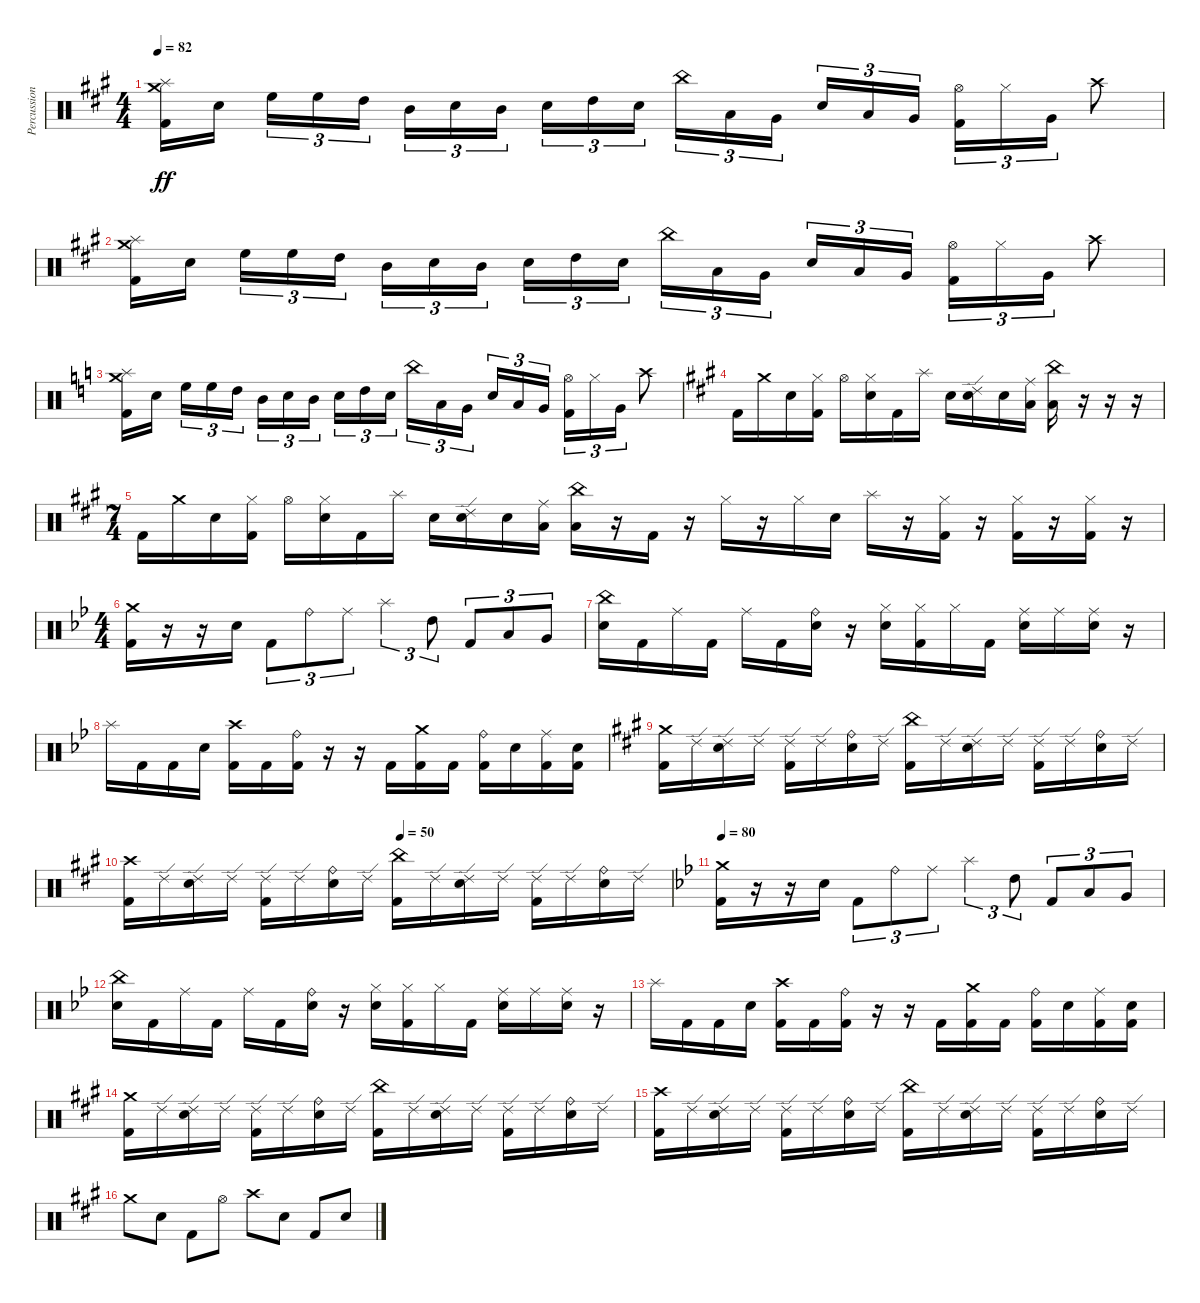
\track ("Percussion" "Percussion") {instrument percussion}
\staff {score}
\articulation defaults
\ts (4 4)
\tempo 82
\clef neutral
\ks a
("Crash medium (hit)" "Splash (hit)" "Kick (hit) 2").16{dy ff} "Electric Snare (hit)".16{beam splitsecondary} "High Floor Tom (hit)".16{tu (3 2)} "High Floor Tom (hit)".16{tu (3 2)} "High Tom (hit)".16{tu (3 2)} "Mid Tom (hit)".16{tu (3 2)} "Electric Snare (hit)".16{tu (3 2)} "Mid Tom (hit)".16{tu (3 2) beam splitsecondary} "Electric Snare (hit)".16{tu (3 2)} "High Tom (hit)".16{tu (3 2)} "Electric Snare (hit)".16{tu (3 2)} "China (hit)".16{tu (3 2)} "Low Tom (hit)".16{tu (3 2)} "Very Low Tom (hit)".16{tu (3 2) beam splitsecondary} "Electric Snare (hit)".16{tu (3 2)} "Low Floor Tom (hit)".16{tu (3 2)} "Very Low Tom (hit)".16{tu (3 2)} ("Hi-Hat (open)" "Kick (hit) 2").16{tu (3 2)} "Hi-Hat (closed)".16{tu (3 2)} "Very Low Tom (hit)".16{tu (3 2)} "Crash high (hit)".8 |
("Crash medium (hit)" "Splash (hit)" "Kick (hit) 2").16 "Electric Snare (hit)".16{beam splitsecondary} "High Floor Tom (hit)".16{tu (3 2)} "High Floor Tom (hit)".16{tu (3 2)} "High Tom (hit)".16{tu (3 2)} "Mid Tom (hit)".16{tu (3 2)} "Electric Snare (hit)".16{tu (3 2)} "Mid Tom (hit)".16{tu (3 2) beam splitsecondary} "Electric Snare (hit)".16{tu (3 2)} "High Tom (hit)".16{tu (3 2)} "Electric Snare (hit)".16{tu (3 2)} "China (hit)".16{tu (3 2)} "Low Tom (hit)".16{tu (3 2)} "Very Low Tom (hit)".16{tu (3 2) beam splitsecondary} "Electric Snare (hit)".16{tu (3 2)} "Low Floor Tom (hit)".16{tu (3 2)} "Very Low Tom (hit)".16{tu (3 2)} ("Hi-Hat (open)" "Kick (hit) 2").16{tu (3 2)} "Hi-Hat (closed)".16{tu (3 2)} "Very Low Tom (hit)".16{tu (3 2)} "Crash high (hit)".8 |
\ks c
("Crash medium (hit)" "Splash (hit)" "Kick (hit) 2").16 "Electric Snare (hit)".16{beam splitsecondary} "High Floor Tom (hit)".16{tu (3 2)} "High Floor Tom (hit)".16{tu (3 2)} "High Tom (hit)".16{tu (3 2)} "Mid Tom (hit)".16{tu (3 2)} "Electric Snare (hit)".16{tu (3 2)} "Mid Tom (hit)".16{tu (3 2) beam splitsecondary} "Electric Snare (hit)".16{tu (3 2)} "High Tom (hit)".16{tu (3 2)} "Electric Snare (hit)".16{tu (3 2)} "China (hit)".16{tu (3 2)} "Low Tom (hit)".16{tu (3 2)} "Very Low Tom (hit)".16{tu (3 2) beam splitsecondary} "Electric Snare (hit)".16{tu (3 2)} "Low Floor Tom (hit)".16{tu (3 2)} "Very Low Tom (hit)".16{tu (3 2)} ("Hi-Hat (open)" "Kick (hit) 2").16{tu (3 2)} "Hi-Hat (closed)".16{tu (3 2)} "Very Low Tom (hit)".16{tu (3 2)} "Crash high (hit)".8 |
\ks a "Kick (hit) 2".16 "Crash medium (hit)".16 "Electric Snare (hit)".16
("Hi-Hat (closed)" "Kick (hit) 2").16 "Hi-Hat (open)".16 ("Hi-Hat (closed)" "Electric Snare (hit)").16 "Kick (hit) 2".16 "Splash (hit)".16 "Electric Snare (hit)".16 ("Ride (edge) 2" "Electric Snare (hit)").16 "Electric Snare (hit)".16 ("Ride (middle)" "Low Floor Tom (hit)").16 ("China (hit)" "Low Floor Tom (hit)").16 r.16 r.16 r.16 |
\ts (7 4)
"Kick (hit) 2".16 "Crash medium (hit)".16 "Electric Snare (hit)".16 ("Hi-Hat (closed)" "Kick (hit) 2").16 "Hi-Hat (open)".16 ("Hi-Hat (closed)" "Electric Snare (hit)").16 "Kick (hit) 2".16 "Splash (hit)".16 "Electric Snare (hit)".16 ("Ride (edge) 2" "Electric Snare (hit)").16 "Electric Snare (hit)".16 ("Ride (middle)" "Low Floor Tom (hit)").16 ("China (hit)" "Low Floor Tom (hit)").16 r.16 "Kick (hit) 2".16 r.16 "Hi-Hat (closed)".16 r.16 "Hi-Hat (closed)".16 "Electric Snare (hit)".16 "Splash (hit)".16 r.16 ("Hi-Hat (closed)" "Kick (hit) 2").16 r.16 ("Hi-Hat (closed)" "Kick (hit) 2").16 r.16 ("Hi-Hat (closed)" "Kick (hit) 2").16 r.16 |
\ts (4 4)
\ks bb
("Crash medium (hit)" "Kick (hit) 2").16 r.16 r.16 "Electric Snare (hit)".16 "Kick (hit) 2".8{tu (3 2)} "Ride (bell)".8{tu (3 2)} "Ride (middle)".8{tu (3 2)} "Splash (hit)".4{tu (3 2)} "High Tom (hit)".8{tu (3 2)} "Kick (hit) 2".8{tu (3 2)} "Low Tom (hit)".8{tu (3 2)} "Very Low Tom (hit)".8{tu (3 2)} |
("China (hit)" "Electric Snare (hit)").16 "Kick (hit) 2".16 "Ride (middle)".16 "Kick (hit) 2".16 "Ride (middle)".16 "Kick (hit) 2".16 ("Ride (bell)" "Electric Snare (hit)").16 r.16 ("Hi-Hat (closed)" "Electric Snare (hit)").16 ("Hi-Hat (closed)" "Kick (hit) 2").16 "Hi-Hat (closed)".16 "Kick (hit) 2".16 ("Ride (middle)" "Electric Snare (hit)").16 "Ride (middle)".16 ("Ride (middle)" "Electric Snare (hit)").16 r.16 |
"Splash (hit)".16 "Kick (hit) 2".16 "Kick (hit) 2".16 "Electric Snare (hit)".16 ("Crash high (hit)" "Kick (hit) 2").16 "Kick (hit) 2".16 ("Ride (bell)" "Kick (hit) 2").16 r.16 r.16 "Kick (hit) 2".16 ("Crash medium (hit)" "Kick (hit) 2").16 "Kick (hit) 2".16 ("Ride (bell)" "Kick (hit) 2").16 "Electric Snare (hit)".16 ("Ride (middle)" "Kick (hit) 2").16 ("Electric Snare (hit)" "Kick (hit) 2").16 |
\ks a
("Crash medium (hit)" "Kick (hit) 2").16 "Ride (edge) 2".16 ("Ride (edge) 2" "Electric Snare (hit)").16 "Ride (edge) 2".16 ("Ride (edge) 2" "Kick (hit) 2").16 "Ride (edge) 2".16 ("Ride (bell)" "Electric Snare (hit)").16 "Ride (edge) 2".16 ("China (hit)" "Kick (hit) 2").16 "Ride (edge) 2".16 ("Ride (edge) 2" "Electric Snare (hit)").16 "Ride (edge) 2".16 ("Ride (edge) 2" "Kick (hit) 2").16 "Ride (edge) 2".16 ("Ride (bell)" "Electric Snare (hit)").16 "Ride (edge) 2".16 |
\tempo (50 0.5)
("Crash high (hit)" "Kick (hit) 2").16 "Ride (edge) 2".16 ("Ride (edge) 2" "Electric Snare (hit)").16 "Ride (edge) 2".16 ("Ride (edge) 2" "Kick (hit) 2").16 "Ride (edge) 2".16 ("Ride (bell)" "Electric Snare (hit)").16 "Ride (edge) 2".16 ("China (hit)" "Kick (hit) 2").16 "Ride (edge) 2".16 ("Ride (edge) 2" "Electric Snare (hit)").16 "Ride (edge) 2".16 ("Ride (edge) 2" "Kick (hit) 2").16 "Ride (edge) 2".16 ("Ride (bell)" "Electric Snare (hit)").16 "Ride (edge) 2".16 |
\tempo 80
\ks bb
("Crash medium (hit)" "Kick (hit) 2").16 r.16 r.16 "Electric Snare (hit)".16 "Kick (hit) 2".8{tu (3 2)} "Ride (bell)".8{tu (3 2)} "Ride (middle)".8{tu (3 2)} "Splash (hit)".4{tu (3 2)} "High Tom (hit)".8{tu (3 2)} "Kick (hit) 2".8{tu (3 2)} "Low Tom (hit)".8{tu (3 2)} "Very Low Tom (hit)".8{tu (3 2)} |
("China (hit)" "Electric Snare (hit)").16 "Kick (hit) 2".16 "Ride (middle)".16 "Kick (hit) 2".16 "Ride (middle)".16 "Kick (hit) 2".16 ("Ride (bell)" "Electric Snare (hit)").16 r.16 ("Hi-Hat (closed)" "Electric Snare (hit)").16 ("Hi-Hat (closed)" "Kick (hit) 2").16 "Hi-Hat (closed)".16 "Kick (hit) 2".16 ("Ride (middle)" "Electric Snare (hit)").16 "Ride (middle)".16 ("Ride (middle)" "Electric Snare (hit)").16 r.16 |
"Splash (hit)".16 "Kick (hit) 2".16 "Kick (hit) 2".16 "Electric Snare (hit)".16 ("Crash high (hit)" "Kick (hit) 2").16 "Kick (hit) 2".16 ("Ride (bell)" "Kick (hit) 2").16 r.16 r.16 "Kick (hit) 2".16 ("Crash medium (hit)" "Kick (hit) 2").16 "Kick (hit) 2".16 ("Ride (bell)" "Kick (hit) 2").16 "Electric Snare (hit)".16 ("Ride (middle)" "Kick (hit) 2").16 ("Electric Snare (hit)" "Kick (hit) 2").16 |
\ks a
("Crash medium (hit)" "Kick (hit) 2").16 "Ride (edge) 2".16 ("Ride (edge) 2" "Electric Snare (hit)").16 "Ride (edge) 2".16 ("Ride (edge) 2" "Kick (hit) 2").16 "Ride (edge) 2".16 ("Ride (bell)" "Electric Snare (hit)").16 "Ride (edge) 2".16 ("China (hit)" "Kick (hit) 2").16 "Ride (edge) 2".16 ("Ride (edge) 2" "Electric Snare (hit)").16 "Ride (edge) 2".16 ("Ride (edge) 2" "Kick (hit) 2").16 "Ride (edge) 2".16 ("Ride (bell)" "Electric Snare (hit)").16 "Ride (edge) 2".16 |
("Crash high (hit)" "Kick (hit) 2").16 "Ride (edge) 2".16 ("Ride (edge) 2" "Electric Snare (hit)").16 "Ride (edge) 2".16 ("Ride (edge) 2" "Kick (hit) 2").16 "Ride (edge) 2".16 ("Ride (bell)" "Electric Snare (hit)").16 "Ride (edge) 2".16 ("China (hit)" "Kick (hit) 2").16 "Ride (edge) 2".16 ("Ride (edge) 2" "Electric Snare (hit)").16 "Ride (edge) 2".16 ("Ride (edge) 2" "Kick (hit) 2").16 "Ride (edge) 2".16 ("Ride (bell)" "Electric Snare (hit)").16 "Ride (edge) 2".16 |
"Crash medium (hit)".8 "Electric Snare (hit)".8 "Kick (hit) 2".8 "Hi-Hat (open)".8 "Crash high (hit)".8 "Electric Snare (hit)".8 "Kick (hit) 2".8 "Electric Snare (hit)".8
